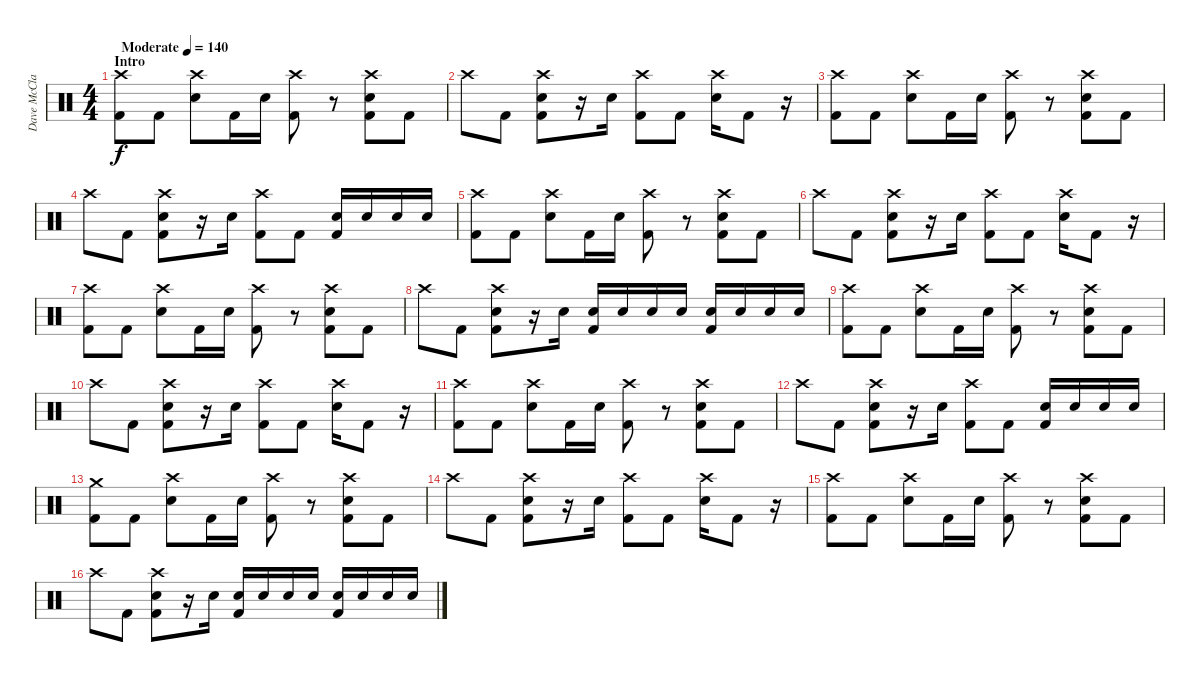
\track ("Dave McClain" "Dave McCla") {solo instrument percussion}
\staff {score}
\articulation defaults
\ts (4 4)
\section ("" "Intro")
\tempo (140 "Moderate")
\clef neutral
\ks c
("Crash high (hit)" "Kick (hit) 2").8{dy f} "Kick (hit) 2".8 ("Crash high (hit)" "Electric Snare (hit)").8 "Kick (hit) 2".16 "Electric Snare (hit)".16 ("Crash high (hit)" "Kick (hit) 2").8 r.8 ("Crash high (hit)" "Electric Snare (hit)" "Kick (hit) 2").8 "Kick (hit) 2".8 |
"Crash high (hit)".8 "Kick (hit) 2".8 ("Crash high (hit)" "Electric Snare (hit)" "Kick (hit) 2").8 r.16 "Electric Snare (hit)".16 ("Crash high (hit)" "Kick (hit) 2").8 "Kick (hit) 2".8 ("Crash high (hit)" "Electric Snare (hit)").16 "Kick (hit) 2".8 r.16 |
("Crash high (hit)" "Kick (hit) 2").8 "Kick (hit) 2".8 ("Crash high (hit)" "Electric Snare (hit)").8 "Kick (hit) 2".16 "Electric Snare (hit)".16 ("Crash high (hit)" "Kick (hit) 2").8 r.8 ("Crash high (hit)" "Electric Snare (hit)" "Kick (hit) 2").8 "Kick (hit) 2".8 |
"Crash high (hit)".8 "Kick (hit) 2".8 ("Crash high (hit)" "Electric Snare (hit)" "Kick (hit) 2").8 r.16 "Electric Snare (hit)".16 ("Crash high (hit)" "Kick (hit) 2").8 "Kick (hit) 2".8 ("Electric Snare (hit)" "Kick (hit) 2").16 "Electric Snare (hit)".16 "Electric Snare (hit)".16 "Electric Snare (hit)".16 |
("Crash high (hit)" "Kick (hit) 2").8 "Kick (hit) 2".8 ("Crash high (hit)" "Electric Snare (hit)").8 "Kick (hit) 2".16 "Electric Snare (hit)".16 ("Crash high (hit)" "Kick (hit) 2").8 r.8 ("Crash high (hit)" "Electric Snare (hit)" "Kick (hit) 2").8 "Kick (hit) 2".8 |
"Crash high (hit)".8 "Kick (hit) 2".8 ("Crash high (hit)" "Electric Snare (hit)" "Kick (hit) 2").8 r.16 "Electric Snare (hit)".16 ("Crash high (hit)" "Kick (hit) 2").8 "Kick (hit) 2".8 ("Crash high (hit)" "Electric Snare (hit)").16 "Kick (hit) 2".8 r.16 |
("Crash high (hit)" "Kick (hit) 2").8 "Kick (hit) 2".8 ("Crash high (hit)" "Electric Snare (hit)").8 "Kick (hit) 2".16 "Electric Snare (hit)".16 ("Crash high (hit)" "Kick (hit) 2").8 r.8 ("Crash high (hit)" "Electric Snare (hit)" "Kick (hit) 2").8 "Kick (hit) 2".8 |
"Crash high (hit)".8 "Kick (hit) 2".8 ("Crash high (hit)" "Electric Snare (hit)" "Kick (hit) 2").8 r.16 "Electric Snare (hit)".16 ("Electric Snare (hit)" "Kick (hit) 2").16 "Electric Snare (hit)".16 "Electric Snare (hit)".16 "Electric Snare (hit)".16 ("Electric Snare (hit)" "Kick (hit) 2").16 "Electric Snare (hit)".16 "Electric Snare (hit)".16 "Electric Snare (hit)".16 |
("Crash high (hit)" "Kick (hit) 2").8 "Kick (hit) 2".8 ("Crash high (hit)" "Electric Snare (hit)").8 "Kick (hit) 2".16 "Electric Snare (hit)".16 ("Crash high (hit)" "Kick (hit) 2").8 r.8 ("Crash high (hit)" "Electric Snare (hit)" "Kick (hit) 2").8 "Kick (hit) 2".8 |
"Crash high (hit)".8 "Kick (hit) 2".8 ("Crash high (hit)" "Electric Snare (hit)" "Kick (hit) 2").8 r.16 "Electric Snare (hit)".16 ("Crash high (hit)" "Kick (hit) 2").8 "Kick (hit) 2".8 ("Crash high (hit)" "Electric Snare (hit)").16 "Kick (hit) 2".8 r.16 |
("Crash high (hit)" "Kick (hit) 2").8 "Kick (hit) 2".8 ("Crash high (hit)" "Electric Snare (hit)").8 "Kick (hit) 2".16 "Electric Snare (hit)".16 ("Crash high (hit)" "Kick (hit) 2").8 r.8 ("Crash high (hit)" "Electric Snare (hit)" "Kick (hit) 2").8 "Kick (hit) 2".8 |
"Crash high (hit)".8 "Kick (hit) 2".8 ("Crash high (hit)" "Electric Snare (hit)" "Kick (hit) 2").8 r.16 "Electric Snare (hit)".16 ("Crash high (hit)" "Kick (hit) 2").8 "Kick (hit) 2".8 ("Electric Snare (hit)" "Kick (hit) 2").16 "Electric Snare (hit)".16 "Electric Snare (hit)".16 "Electric Snare (hit)".16 |
("Crash medium (hit)" "Kick (hit) 2").8 "Kick (hit) 2".8 ("Crash high (hit)" "Electric Snare (hit)").8 "Kick (hit) 2".16 "Electric Snare (hit)".16 ("Crash high (hit)" "Kick (hit) 2").8 r.8 ("Crash high (hit)" "Electric Snare (hit)" "Kick (hit) 2").8 "Kick (hit) 2".8 |
"Crash high (hit)".8 "Kick (hit) 2".8 ("Crash high (hit)" "Electric Snare (hit)" "Kick (hit) 2").8 r.16 "Electric Snare (hit)".16 ("Crash high (hit)" "Kick (hit) 2").8 "Kick (hit) 2".8 ("Crash high (hit)" "Electric Snare (hit)").16 "Kick (hit) 2".8 r.16 |
("Crash high (hit)" "Kick (hit) 2").8 "Kick (hit) 2".8 ("Crash high (hit)" "Electric Snare (hit)").8 "Kick (hit) 2".16 "Electric Snare (hit)".16 ("Crash high (hit)" "Kick (hit) 2").8 r.8 ("Crash high (hit)" "Electric Snare (hit)" "Kick (hit) 2").8 "Kick (hit) 2".8 |
"Crash high (hit)".8 "Kick (hit) 2".8 ("Crash high (hit)" "Electric Snare (hit)" "Kick (hit) 2").8 r.16 "Electric Snare (hit)".16 ("Electric Snare (hit)" "Kick (hit) 2").16 "Electric Snare (hit)".16 "Electric Snare (hit)".16 "Electric Snare (hit)".16 ("Electric Snare (hit)" "Kick (hit) 2").16 "Electric Snare (hit)".16 "Electric Snare (hit)".16 "Electric Snare (hit)".16
